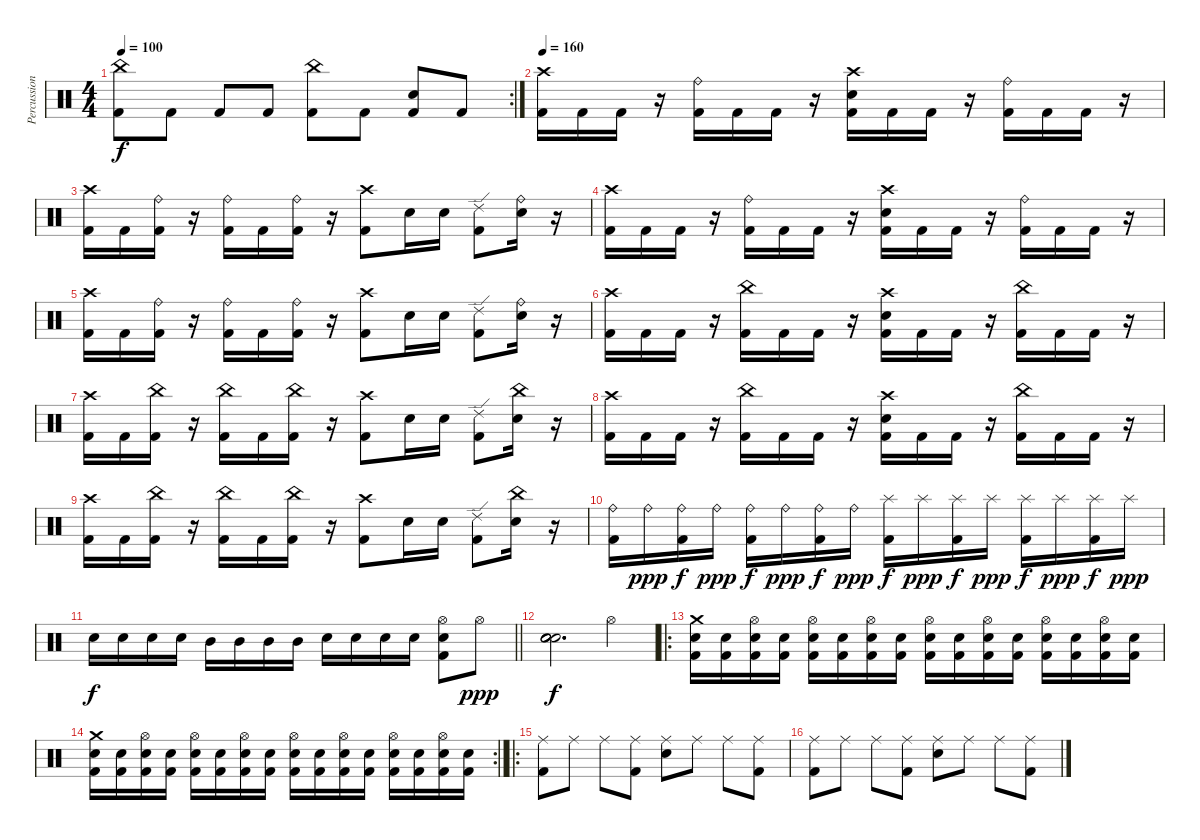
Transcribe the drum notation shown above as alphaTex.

\track ("Percussion" "Percussion") {instrument percussion}
\staff {score}
\articulation defaults
\rc 2
\ts (4 4)
\tempo 100
\clef neutral
\ks c
("China (hit)" "Kick (hit) 2").8{dy f} "Kick (hit) 2".8 "Kick (hit) 2".8 "Kick (hit) 2".8 ("China (hit)" "Kick (hit) 2").8 "Kick (hit) 2".8 ("Snare (hit) 2" "Kick (hit) 2").8 "Kick (hit) 2".8 |
\tempo 160
("Crash high (hit)" "Kick (hit) 2").16 "Kick (hit) 2".16 "Kick (hit) 2".16 r.16 ("Ride (bell)" "Kick (hit) 2").16 "Kick (hit) 2".16 "Kick (hit) 2".16 r.16 ("Crash high (hit)" "Snare (hit) 2" "Kick (hit) 2").16 "Kick (hit) 2".16 "Kick (hit) 2".16 r.16 ("Ride (bell)" "Kick (hit) 2").16 "Kick (hit) 2".16 "Kick (hit) 2".16 r.16 |
("Crash high (hit)" "Kick (hit) 2").16 "Kick (hit) 2".16 ("Ride (bell)" "Kick (hit) 2").16 r.16 ("Ride (bell)" "Kick (hit) 2").16 "Kick (hit) 2".16 ("Ride (bell)" "Kick (hit) 2").16 r.16 ("Crash high (hit)" "Kick (hit) 2").8 "Snare (hit) 2".16 "Snare (hit) 2".16 ("Ride (edge) 2" "Kick (hit) 2").8 ("Ride (bell)" "Snare (hit) 2").16 r.16 |
("Crash high (hit)" "Kick (hit) 2").16 "Kick (hit) 2".16 "Kick (hit) 2".16 r.16 ("Ride (bell)" "Kick (hit) 2").16 "Kick (hit) 2".16 "Kick (hit) 2".16 r.16 ("Crash high (hit)" "Snare (hit) 2" "Kick (hit) 2").16 "Kick (hit) 2".16 "Kick (hit) 2".16 r.16 ("Ride (bell)" "Kick (hit) 2").16 "Kick (hit) 2".16 "Kick (hit) 2".16 r.16 |
("Crash high (hit)" "Kick (hit) 2").16 "Kick (hit) 2".16 ("Ride (bell)" "Kick (hit) 2").16 r.16 ("Ride (bell)" "Kick (hit) 2").16 "Kick (hit) 2".16 ("Ride (bell)" "Kick (hit) 2").16 r.16 ("Crash high (hit)" "Kick (hit) 2").8 "Snare (hit) 2".16 "Snare (hit) 2".16 ("Ride (edge) 2" "Kick (hit) 2").8 ("Ride (bell)" "Snare (hit) 2").16 r.16 |
("Crash high (hit)" "Kick (hit) 2").16 "Kick (hit) 2".16 "Kick (hit) 2".16 r.16 ("China (hit)" "Kick (hit) 2").16 "Kick (hit) 2".16 "Kick (hit) 2".16 r.16 ("Crash high (hit)" "Snare (hit) 2" "Kick (hit) 2").16 "Kick (hit) 2".16 "Kick (hit) 2".16 r.16 ("China (hit)" "Kick (hit) 2").16 "Kick (hit) 2".16 "Kick (hit) 2".16 r.16 |
("Crash high (hit)" "Kick (hit) 2").16 "Kick (hit) 2".16 ("China (hit)" "Kick (hit) 2").16 r.16 ("China (hit)" "Kick (hit) 2").16 "Kick (hit) 2".16 ("China (hit)" "Kick (hit) 2").16 r.16 ("Crash high (hit)" "Kick (hit) 2").8 "Snare (hit) 2".16 "Snare (hit) 2".16 ("Ride (edge) 2" "Kick (hit) 2").8 ("China (hit)" "Snare (hit) 2").16 r.16 |
("Crash high (hit)" "Kick (hit) 2").16 "Kick (hit) 2".16 "Kick (hit) 2".16 r.16 ("China (hit)" "Kick (hit) 2").16 "Kick (hit) 2".16 "Kick (hit) 2".16 r.16 ("Crash high (hit)" "Snare (hit) 2" "Kick (hit) 2").16 "Kick (hit) 2".16 "Kick (hit) 2".16 r.16 ("China (hit)" "Kick (hit) 2").16 "Kick (hit) 2".16 "Kick (hit) 2".16 r.16 |
("Crash high (hit)" "Kick (hit) 2").16 "Kick (hit) 2".16 ("China (hit)" "Kick (hit) 2").16 r.16 ("China (hit)" "Kick (hit) 2").16 "Kick (hit) 2".16 ("China (hit)" "Kick (hit) 2").16 r.16 ("Crash high (hit)" "Kick (hit) 2").8 "Snare (hit) 2".16 "Snare (hit) 2".16 ("Ride (edge) 2" "Kick (hit) 2").8 ("China (hit)" "Snare (hit) 2").16 r.16 |
("Ride (bell)" "Kick (hit) 2").16 "Ride (bell)".16{dy ppp} ("Ride (bell)" "Kick (hit) 2").16{dy f} "Ride (bell)".16{dy ppp} ("Ride (bell)" "Kick (hit) 2").16{dy f} "Ride (bell)".16{dy ppp} ("Ride (bell)" "Kick (hit) 2").16{dy f} "Ride (bell)".16{dy ppp} ("Splash (hit)" "Kick (hit) 2").16{dy f} "Splash (hit)".16{dy ppp} ("Splash (hit)" "Kick (hit) 2").16{dy f} "Splash (hit)".16{dy ppp} ("Splash (hit)" "Kick (hit) 2").16{dy f} "Splash (hit)".16{dy ppp} ("Splash (hit)" "Kick (hit) 2").16{dy f} "Splash (hit)".16{dy ppp} |
\barLineRight lightlight "Electric Snare (hit)".16{dy f} "Electric Snare (hit)".16 "Electric Snare (hit)".16 "Electric Snare (hit)".16 "Mid Tom (hit)".16 "Mid Tom (hit)".16 "Mid Tom (hit)".16 "Mid Tom (hit)".16 "Electric Snare (hit)".16 "Electric Snare (hit)".16 "Electric Snare (hit)".16 "Electric Snare (hit)".16
("Hi-Hat (open)" "Electric Snare (hit)" "Kick (hit) 2").8 "Hi-Hat (open)".8{dy ppp} |
("Snare (hit) 2" "Snare (hit) 2" "Electric Snare (hit)" "Electric Snare (hit)").2{d dy f} "Hi-Hat (open)".4 |
\ro
("Crash medium (hit)" "Electric Snare (hit)" "Kick (hit) 2").16 ("Electric Snare (hit)" "Kick (hit) 2").16 ("Hi-Hat (open)" "Electric Snare (hit)" "Kick (hit) 2").16 ("Electric Snare (hit)" "Kick (hit) 2").16 ("Hi-Hat (open)" "Electric Snare (hit)" "Kick (hit) 2").16 ("Electric Snare (hit)" "Kick (hit) 2").16 ("Hi-Hat (open)" "Electric Snare (hit)" "Kick (hit) 2").16 ("Electric Snare (hit)" "Kick (hit) 2").16 ("Hi-Hat (open)" "Electric Snare (hit)" "Kick (hit) 2").16 ("Electric Snare (hit)" "Kick (hit) 2").16 ("Hi-Hat (open)" "Electric Snare (hit)" "Kick (hit) 2").16 ("Electric Snare (hit)" "Kick (hit) 2").16 ("Hi-Hat (open)" "Electric Snare (hit)" "Kick (hit) 2").16 ("Electric Snare (hit)" "Kick (hit) 2").16 ("Hi-Hat (open)" "Electric Snare (hit)" "Kick (hit) 2").16 ("Electric Snare (hit)" "Kick (hit) 2").16 |
\rc 2
\barLineRight lightlight
("Crash medium (hit)" "Electric Snare (hit)" "Kick (hit) 2").16 ("Electric Snare (hit)" "Kick (hit) 2").16 ("Hi-Hat (open)" "Electric Snare (hit)" "Kick (hit) 2").16 ("Electric Snare (hit)" "Kick (hit) 2").16 ("Hi-Hat (open)" "Electric Snare (hit)" "Kick (hit) 2").16 ("Electric Snare (hit)" "Kick (hit) 2").16 ("Hi-Hat (open)" "Electric Snare (hit)" "Kick (hit) 2").16 ("Electric Snare (hit)" "Kick (hit) 2").16 ("Hi-Hat (open)" "Electric Snare (hit)" "Kick (hit) 2").16 ("Electric Snare (hit)" "Kick (hit) 2").16 ("Hi-Hat (open)" "Electric Snare (hit)" "Kick (hit) 2").16 ("Electric Snare (hit)" "Kick (hit) 2").16 ("Hi-Hat (open)" "Electric Snare (hit)" "Kick (hit) 2").16 ("Electric Snare (hit)" "Kick (hit) 2").16 ("Hi-Hat (open)" "Electric Snare (hit)" "Kick (hit) 2").16 ("Electric Snare (hit)" "Kick (hit) 2").16 |
\ro
("Ride (middle)" "Kick (hit) 2").8 "Ride (middle)".8 "Ride (middle)".8 ("Ride (middle)" "Kick (hit) 2").8 ("Ride (middle)" "Snare (hit) 2").8 "Ride (middle)".8 "Ride (middle)".8 ("Ride (middle)" "Kick (hit) 2").8 |
("Ride (middle)" "Kick (hit) 2").8 "Ride (middle)".8 "Ride (middle)".8 ("Ride (middle)" "Kick (hit) 2").8 ("Ride (middle)" "Snare (hit) 2").8 "Ride (middle)".8 "Ride (middle)".8 ("Ride (middle)" "Kick (hit) 2").8
